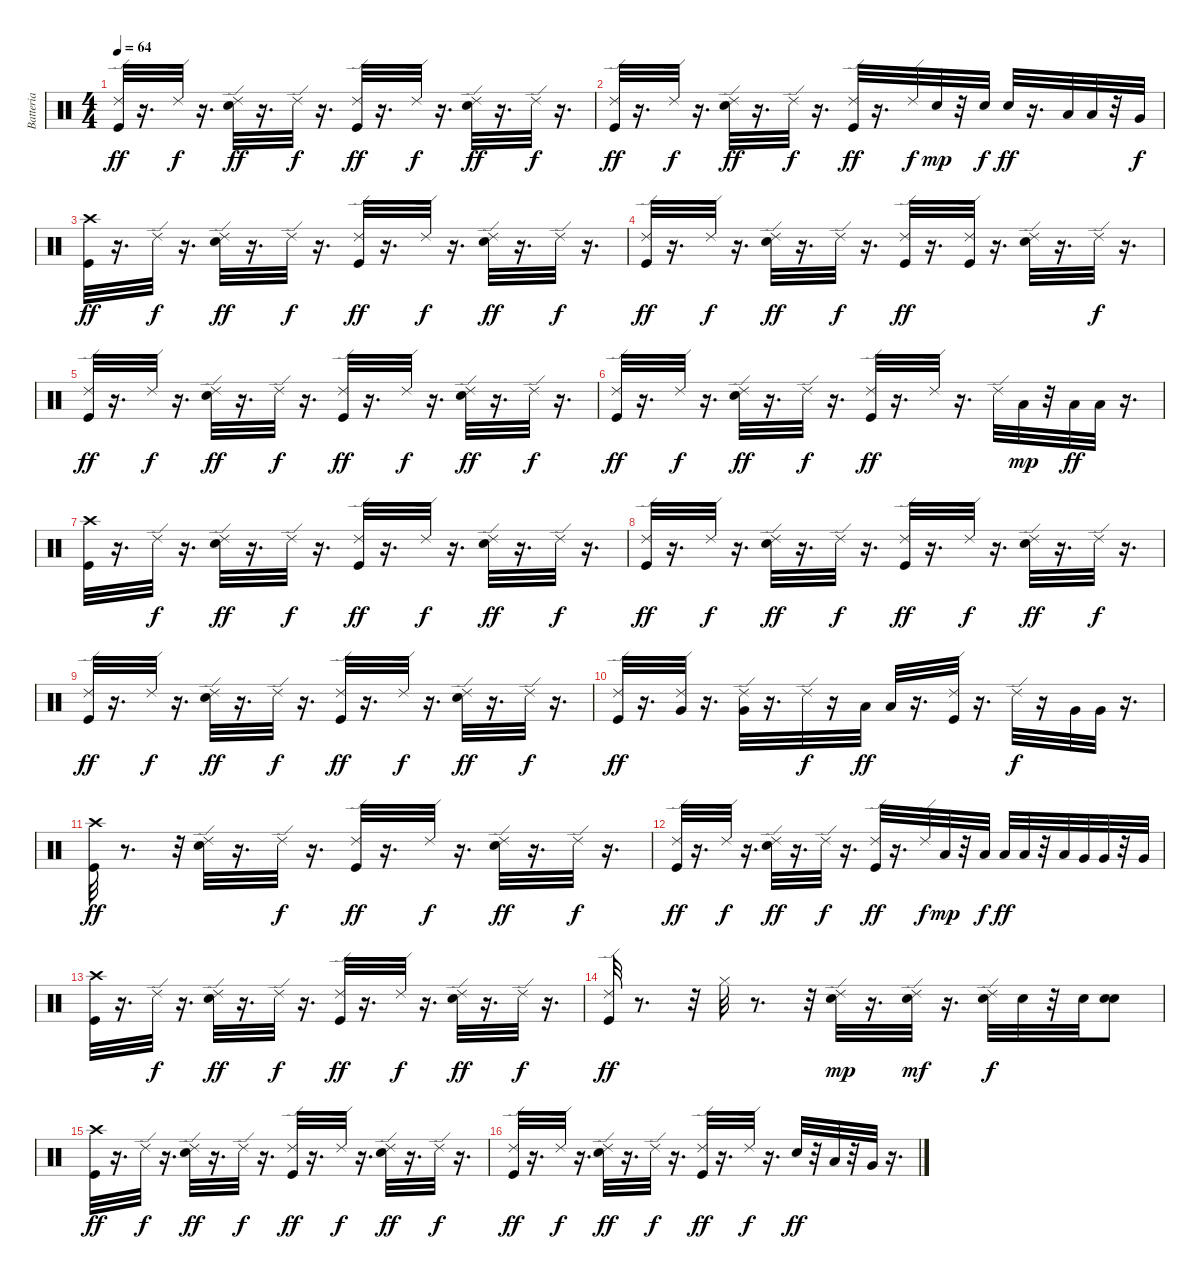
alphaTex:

\track ("Batteria" "Batteria") {instrument percussion}
\staff {score}
\articulation defaults
\ts (4 4)
\tempo 64
\clef neutral
\ks c
("Kick (hit)" "Ride (edge) 2").32{dy ff} r.16{d} "Ride (edge) 2".32{dy f} r.16{d} ("Snare (hit) 2" "Ride (edge) 2").32{dy ff} r.16{d} "Ride (edge) 2".32{dy f} r.16{d} ("Kick (hit)" "Ride (edge) 2").32{dy ff} r.16{d} "Ride (edge) 2".32{dy f} r.16{d} ("Snare (hit) 2" "Ride (edge) 2").32{dy ff} r.16{d} "Ride (edge) 2".32{dy f} r.16{d} |
("Kick (hit)" "Ride (edge) 2").32{dy ff} r.16{d} "Ride (edge) 2".32{dy f} r.16{d} ("Snare (hit) 2" "Ride (edge) 2").32{dy ff} r.16{d} "Ride (edge) 2".32{dy f} r.16{d} ("Kick (hit)" "Ride (edge) 2").32{dy ff} r.16{d} "Ride (edge) 2".32{dy f} "Snare (hit) 2".32{dy mp} r.32 "Snare (hit) 2".32{dy f} "Snare (hit) 2".32{dy ff} r.16{d} "Low Tom (hit)".32 "Low Tom (hit)".32 r.32 "Very Low Tom (hit)".32{dy f} |
("Kick (hit)" "Crash high (hit)").32{dy ff} r.16{d} "Ride (edge) 2".32{dy f} r.16{d} ("Snare (hit) 2" "Ride (edge) 2").32{dy ff} r.16{d} "Ride (edge) 2".32{dy f} r.16{d} ("Kick (hit)" "Ride (edge) 2").32{dy ff} r.16{d} "Ride (edge) 2".32{dy f} r.16{d} ("Snare (hit) 2" "Ride (edge) 2").32{dy ff} r.16{d} "Ride (edge) 2".32{dy f} r.16{d} |
("Kick (hit)" "Ride (edge) 2").32{dy ff} r.16{d} "Ride (edge) 2".32{dy f} r.16{d} ("Snare (hit) 2" "Ride (edge) 2").32{dy ff} r.16{d} "Ride (edge) 2".32{dy f} r.16{d} ("Kick (hit)" "Ride (edge) 2").32{dy ff} r.16{d} ("Kick (hit)" "Ride (edge) 2").32 r.16{d} ("Snare (hit) 2" "Ride (edge) 2").32 r.16{d} "Ride (edge) 2".32{dy f} r.16{d} |
("Kick (hit)" "Ride (edge) 2").32{dy ff} r.16{d} "Ride (edge) 2".32{dy f} r.16{d} ("Snare (hit) 2" "Ride (edge) 2").32{dy ff} r.16{d} "Ride (edge) 2".32{dy f} r.16{d} ("Kick (hit)" "Ride (edge) 2").32{dy ff} r.16{d} "Ride (edge) 2".32{dy f} r.16{d} ("Snare (hit) 2" "Ride (edge) 2").32{dy ff} r.16{d} "Ride (edge) 2".32{dy f} r.16{d} |
("Kick (hit)" "Ride (edge) 2").32{dy ff} r.16{d} "Ride (edge) 2".32{dy f} r.16{d} ("Snare (hit) 2" "Ride (edge) 2").32{dy ff} r.16{d} "Ride (edge) 2".32{dy f} r.16{d} ("Kick (hit)" "Ride (edge) 2").32{dy ff} r.16{d} "Ride (edge) 2".32 r.16{d} "Ride (edge) 2".32 "Low Tom (hit)".32{dy mp} r.32 "Low Tom (hit)".32{dy ff} "Low Tom (hit)".32 r.16{d} |
("Crash high (hit)" "Kick (hit)").32 r.16{d} "Ride (edge) 2".32{dy f} r.16{d} ("Snare (hit) 2" "Ride (edge) 2").32{dy ff} r.16{d} "Ride (edge) 2".32{dy f} r.16{d} ("Kick (hit)" "Ride (edge) 2").32{dy ff} r.16{d} "Ride (edge) 2".32{dy f} r.16{d} ("Snare (hit) 2" "Ride (edge) 2").32{dy ff} r.16{d} "Ride (edge) 2".32{dy f} r.16{d} |
("Kick (hit)" "Ride (edge) 2").32{dy ff} r.16{d} "Ride (edge) 2".32{dy f} r.16{d} ("Snare (hit) 2" "Ride (edge) 2").32{dy ff} r.16{d} "Ride (edge) 2".32{dy f} r.16{d} ("Kick (hit)" "Ride (edge) 2").32{dy ff} r.16{d} "Ride (edge) 2".32{dy f} r.16{d} ("Snare (hit) 2" "Ride (edge) 2").32{dy ff} r.16{d} "Ride (edge) 2".32{dy f} r.16{d} |
("Kick (hit)" "Ride (edge) 2").32{dy ff} r.16{d} "Ride (edge) 2".32{dy f} r.16{d} ("Snare (hit) 2" "Ride (edge) 2").32{dy ff} r.16{d} "Ride (edge) 2".32{dy f} r.16{d} ("Kick (hit)" "Ride (edge) 2").32{dy ff} r.16{d} "Ride (edge) 2".32{dy f} r.16{d} ("Snare (hit) 2" "Ride (edge) 2").32{dy ff} r.16{d} "Ride (edge) 2".32{dy f} r.16{d} |
("Kick (hit)" "Ride (edge) 2").32{dy ff} r.16{d} ("Very Low Tom (hit)" "Ride (edge) 2").32 r.16{d} ("Very Low Tom (hit)" "Ride (edge) 2").32 r.16{d} "Ride (edge) 2".32{dy f} r.16 "Low Floor Tom (hit)".32{dy ff} "Low Floor Tom (hit)".32 r.16{d} ("Kick (hit)" "Ride (edge) 2").32 r.16{d} "Ride (edge) 2".32{dy f} r.16 "Very Low Tom (hit)".32 "Very Low Tom (hit)".32 r.16{d} |
("Kick (hit)" "Crash high (hit)").32{dy ff} r.8{d} r.32 ("Snare (hit) 2" "Ride (edge) 2").32 r.16{d} "Ride (edge) 2".32{dy f} r.16{d} ("Kick (hit)" "Ride (edge) 2").32{dy ff} r.16{d} "Ride (edge) 2".32{dy f} r.16{d} ("Snare (hit) 2" "Ride (edge) 2").32{dy ff} r.16{d} "Ride (edge) 2".32{dy f} r.16{d} |
("Kick (hit)" "Ride (edge) 2").32{dy ff} r.16{d} "Ride (edge) 2".32{dy f} r.16{d} ("Snare (hit) 2" "Ride (edge) 2").32{dy ff} r.16{d} "Ride (edge) 2".32{dy f} r.16{d} ("Kick (hit)" "Ride (edge) 2").32{dy ff} r.16{d} "Ride (edge) 2".32{dy f} "Low Tom (hit)".32{dy mp} r.32 "Low Tom (hit)".32{dy f} "Low Tom (hit)".32{dy ff} "Low Tom (hit)".32 r.32 "Low Tom (hit)".32 "Very Low Tom (hit)".32 "Very Low Tom (hit)".32 r.32 "Very Low Tom (hit)".32 |
("Kick (hit)" "Crash high (hit)").32 r.16{d} "Ride (edge) 2".32{dy f} r.16{d} ("Snare (hit) 2" "Ride (edge) 2").32{dy ff} r.16{d} "Ride (edge) 2".32{dy f} r.16{d} ("Kick (hit)" "Ride (edge) 2").32{dy ff} r.16{d} "Ride (edge) 2".32{dy f} r.16{d} ("Snare (hit) 2" "Ride (edge) 2").32{dy ff} r.16{d} "Ride (edge) 2".32{dy f} r.16{d} |
("Kick (hit)" "Ride (edge) 2").32{dy ff} r.8{d} r.32 "Hi-Hat (closed)".32 r.8{d} r.32 ("Snare (hit) 2" "Ride (edge) 2").32{dy mp} r.16{d} ("Ride (edge) 2" "Snare (hit) 2").32{dy mf} r.16{d} ("Ride (edge) 2" "Snare (hit) 2").32{dy f} "Snare (hit) 2".32 r.32 "Snare (hit) 2".32 ("Snare (hit) 2" "Snare (hit) 2").8 |
("Kick (hit)" "Crash high (hit)").32{dy ff} r.16{d} "Ride (edge) 2".32{dy f} r.16{d} ("Snare (hit) 2" "Ride (edge) 2").32{dy ff} r.16{d} "Ride (edge) 2".32{dy f} r.16{d} ("Kick (hit)" "Ride (edge) 2").32{dy ff} r.16{d} "Ride (edge) 2".32{dy f} r.16{d} ("Snare (hit) 2" "Ride (edge) 2").32{dy ff} r.16{d} "Ride (edge) 2".32{dy f} r.16{d} |
("Kick (hit)" "Ride (edge) 2").32{dy ff} r.16{d} "Ride (edge) 2".32{dy f} r.16{d} ("Snare (hit) 2" "Ride (edge) 2").32{dy ff} r.16{d} "Ride (edge) 2".32{dy f} r.16{d} ("Kick (hit)" "Ride (edge) 2").32{dy ff} r.16{d} "Ride (edge) 2".32{dy f} r.16{d} "Snare (hit) 2".32{dy ff} r.32 "Low Tom (hit)".32 r.32 "Very Low Tom (hit)".32 r.16{d}
